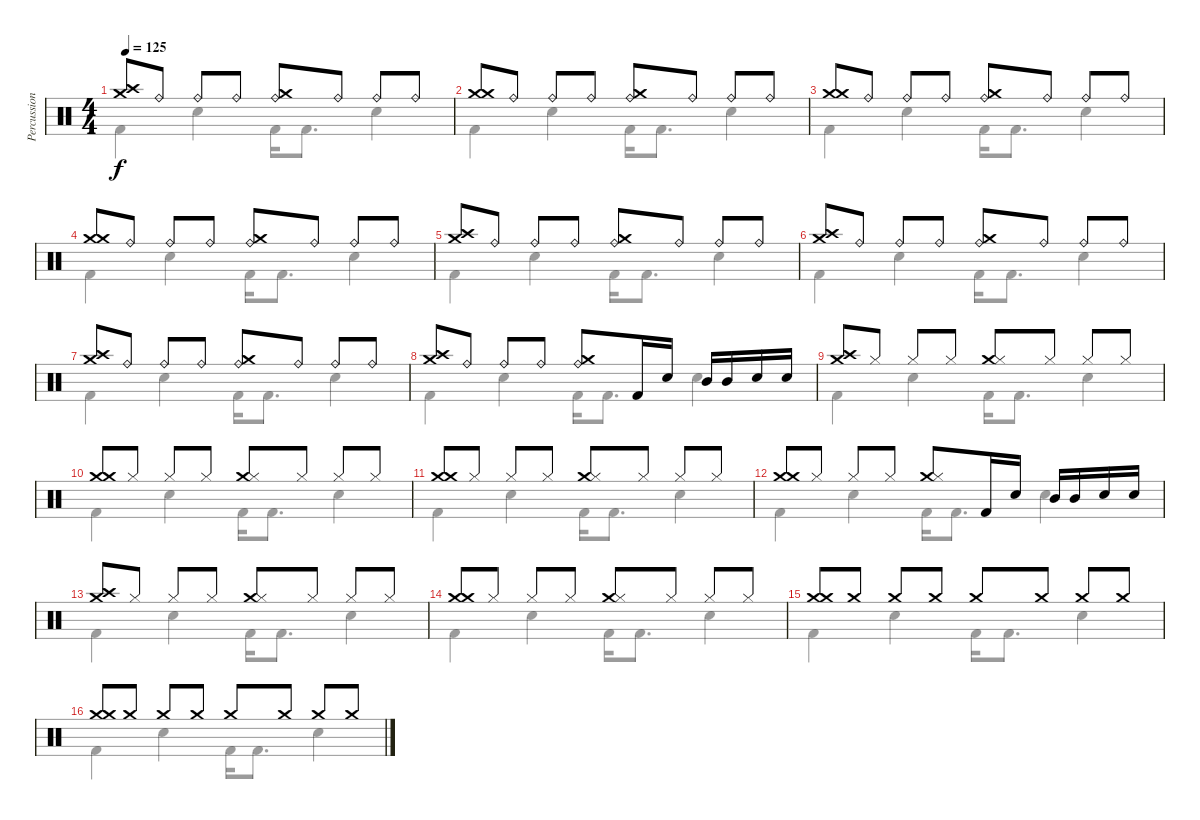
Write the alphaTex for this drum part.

\track ("Percussion" "Percussion") {instrument percussion}
\staff {score}
\articulation defaults
\voice
\ts (4 4)
\tempo 125
\clef neutral
\ks c
("Crash medium (hit)" "Crash high (hit)").8{dy f} "Ride (bell)".8 "Ride (bell)".8 "Ride (bell)".8 ("Crash medium (hit)" "Ride (bell)").8 "Ride (bell)".8 "Ride (bell)".8 "Ride (bell)".8 |
("Crash medium (hit)" "Crash medium (hit)").8 "Ride (bell)".8 "Ride (bell)".8 "Ride (bell)".8 ("Crash medium (hit)" "Ride (bell)").8 "Ride (bell)".8 "Ride (bell)".8 "Ride (bell)".8 |
("Crash medium (hit)" "Crash medium (hit)").8 "Ride (bell)".8 "Ride (bell)".8 "Ride (bell)".8 ("Crash medium (hit)" "Ride (bell)").8 "Ride (bell)".8 "Ride (bell)".8 "Ride (bell)".8 |
("Crash medium (hit)" "Crash medium (hit)").8 "Ride (bell)".8 "Ride (bell)".8 "Ride (bell)".8 ("Crash medium (hit)" "Ride (bell)").8 "Ride (bell)".8 "Ride (bell)".8 "Ride (bell)".8 |
("Crash medium (hit)" "Crash high (hit)").8 "Ride (bell)".8 "Ride (bell)".8 "Ride (bell)".8 ("Crash medium (hit)" "Ride (bell)").8 "Ride (bell)".8 "Ride (bell)".8 "Ride (bell)".8 |
("Crash medium (hit)" "Crash high (hit)").8 "Ride (bell)".8 "Ride (bell)".8 "Ride (bell)".8 ("Crash medium (hit)" "Ride (bell)").8 "Ride (bell)".8 "Ride (bell)".8 "Ride (bell)".8 |
("Crash medium (hit)" "Crash high (hit)").8 "Ride (bell)".8 "Ride (bell)".8 "Ride (bell)".8 ("Crash medium (hit)" "Ride (bell)").8 "Ride (bell)".8 "Ride (bell)".8 "Ride (bell)".8 |
("Crash medium (hit)" "Crash high (hit)").8 "Ride (bell)".8 "Ride (bell)".8 "Ride (bell)".8 ("Crash medium (hit)" "Ride (bell)").8 "Kick (hit) 2".16 "Snare (hit) 2".16 "Mid Tom (hit)".16 "Mid Tom (hit)".16 "Snare (hit) 2".16 "Electric Snare (hit)".16 |
("Crash medium (hit)" "Crash high (hit)").8 "Hi-Hat (closed)".8 "Hi-Hat (closed)".8 "Hi-Hat (closed)".8 ("Crash medium (hit)" "Hi-Hat (closed)").8 "Hi-Hat (closed)".8 "Hi-Hat (closed)".8 "Hi-Hat (closed)".8 |
("Crash medium (hit)" "Crash medium (hit)").8 "Hi-Hat (closed)".8 "Hi-Hat (closed)".8 "Hi-Hat (closed)".8 ("Crash medium (hit)" "Hi-Hat (closed)").8 "Hi-Hat (closed)".8 "Hi-Hat (closed)".8 "Hi-Hat (closed)".8 |
("Crash medium (hit)" "Crash medium (hit)").8 "Hi-Hat (closed)".8 "Hi-Hat (closed)".8 "Hi-Hat (closed)".8 ("Crash medium (hit)" "Hi-Hat (closed)").8 "Hi-Hat (closed)".8 "Hi-Hat (closed)".8 "Hi-Hat (closed)".8 |
("Crash medium (hit)" "Crash medium (hit)").8 "Hi-Hat (closed)".8 "Hi-Hat (closed)".8 "Hi-Hat (closed)".8 ("Crash medium (hit)" "Hi-Hat (closed)").8 "Kick (hit) 2".16 "Snare (hit) 2".16 "Mid Tom (hit)".16 "Mid Tom (hit)".16 "Snare (hit) 2".16 "Electric Snare (hit)".16 |
("Crash medium (hit)" "Crash high (hit)").8 "Hi-Hat (closed)".8 "Hi-Hat (closed)".8 "Hi-Hat (closed)".8 ("Crash medium (hit)" "Hi-Hat (closed)").8 "Hi-Hat (closed)".8 "Hi-Hat (closed)".8 "Hi-Hat (closed)".8 |
("Crash medium (hit)" "Crash medium (hit)").8 "Hi-Hat (closed)".8 "Hi-Hat (closed)".8 "Hi-Hat (closed)".8 ("Crash medium (hit)" "Hi-Hat (closed)").8 "Hi-Hat (closed)".8 "Hi-Hat (closed)".8 "Hi-Hat (closed)".8 |
("Crash medium (hit)" "Crash medium (hit)").8 "Crash medium (hit)".8 "Crash medium (hit)".8 "Crash medium (hit)".8 "Crash medium (hit)".8 "Crash medium (hit)".8 "Crash medium (hit)".8 "Crash medium (hit)".8 |
("Crash medium (hit)" "Crash medium (hit)").8 "Crash medium (hit)".8 "Crash medium (hit)".8 "Crash medium (hit)".8 "Crash medium (hit)".8 "Crash medium (hit)".8 "Crash medium (hit)".8 "Crash medium (hit)".8
\voice
\clef neutral
\ottava regular
\simile none
\ks c "Kick (hit) 2".4{dy f} "Electric Snare (hit)".4 "Kick (hit) 2".16 "Kick (hit) 2".8{d} "Electric Snare (hit)".4
|
"Kick (hit) 2".4 "Electric Snare (hit)".4 "Kick (hit) 2".16 "Kick (hit) 2".8{d} "Electric Snare (hit)".4 |
"Kick (hit) 2".4 "Electric Snare (hit)".4 "Kick (hit) 2".16 "Kick (hit) 2".8{d} "Electric Snare (hit)".4 |
"Kick (hit) 2".4 "Electric Snare (hit)".4 "Kick (hit) 2".16 "Kick (hit) 2".8{d} "Electric Snare (hit)".4 |
"Kick (hit) 2".4 "Electric Snare (hit)".4 "Kick (hit) 2".16 "Kick (hit) 2".8{d} "Electric Snare (hit)".4 |
"Kick (hit) 2".4 "Electric Snare (hit)".4 "Kick (hit) 2".16 "Kick (hit) 2".8{d} "Electric Snare (hit)".4 |
"Kick (hit) 2".4 "Electric Snare (hit)".4 "Kick (hit) 2".16 "Kick (hit) 2".8{d} "Electric Snare (hit)".4 |
"Kick (hit) 2".4 "Electric Snare (hit)".4 "Kick (hit) 2".16 "Kick (hit) 2".8{d} "Electric Snare (hit)".4 |
"Kick (hit) 2".4 "Electric Snare (hit)".4 "Kick (hit) 2".16 "Kick (hit) 2".8{d} "Electric Snare (hit)".4 |
"Kick (hit) 2".4 "Electric Snare (hit)".4 "Kick (hit) 2".16 "Kick (hit) 2".8{d} "Electric Snare (hit)".4 |
"Kick (hit) 2".4 "Electric Snare (hit)".4 "Kick (hit) 2".16 "Kick (hit) 2".8{d} "Electric Snare (hit)".4 |
"Kick (hit) 2".4 "Electric Snare (hit)".4 "Kick (hit) 2".16 "Kick (hit) 2".8{d} "Electric Snare (hit)".4 |
"Kick (hit) 2".4 "Electric Snare (hit)".4 "Kick (hit) 2".16 "Kick (hit) 2".8{d} "Electric Snare (hit)".4 |
"Kick (hit) 2".4 "Electric Snare (hit)".4 "Kick (hit) 2".16 "Kick (hit) 2".8{d} "Electric Snare (hit)".4 |
"Kick (hit) 2".4 "Electric Snare (hit)".4 "Kick (hit) 2".16 "Kick (hit) 2".8{d} "Electric Snare (hit)".4 |
"Kick (hit) 2".4 "Electric Snare (hit)".4 "Kick (hit) 2".16 "Kick (hit) 2".8{d} "Electric Snare (hit)".4
